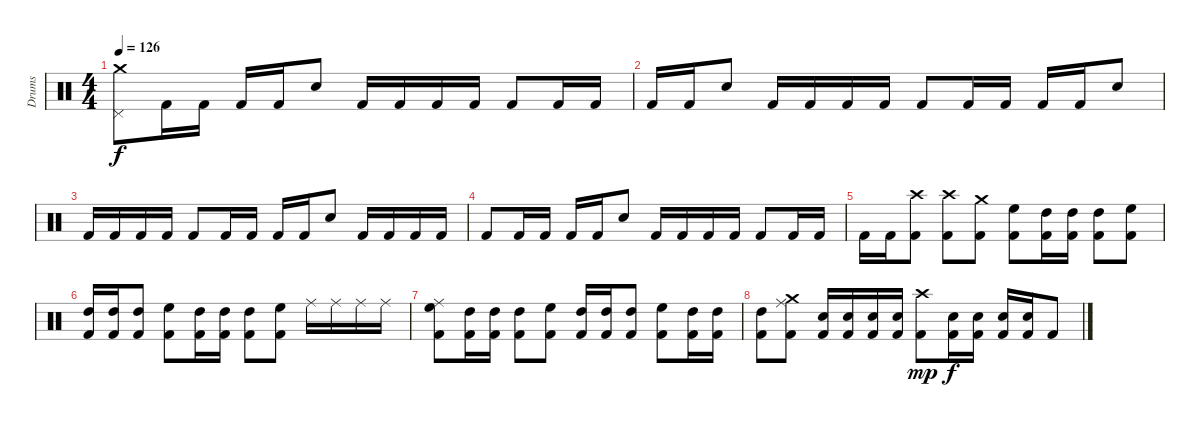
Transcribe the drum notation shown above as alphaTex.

\track ("Drums" "Drums") {instrument percussion}
\staff {score}
\articulation defaults
\ts (4 4)
\tempo 126
\clef neutral
\ks c
("Crash medium (hit)" "Pedal Hi-Hat (hit)").8{dy f} "Kick (hit) 2".16 "Kick (hit) 2".16 "Kick (hit) 2".16 "Kick (hit) 2".16 "Electric Snare (hit)".8 "Kick (hit) 2".16 "Kick (hit) 2".16 "Kick (hit) 2".16 "Kick (hit) 2".16 "Kick (hit) 2".8 "Kick (hit) 2".16 "Kick (hit) 2".16 |
"Kick (hit) 2".16 "Kick (hit) 2".16 "Electric Snare (hit)".8 "Kick (hit) 2".16 "Kick (hit) 2".16 "Kick (hit) 2".16 "Kick (hit) 2".16 "Kick (hit) 2".8 "Kick (hit) 2".16 "Kick (hit) 2".16 "Kick (hit) 2".16 "Kick (hit) 2".16 "Electric Snare (hit)".8 |
"Kick (hit) 2".16 "Kick (hit) 2".16 "Kick (hit) 2".16 "Kick (hit) 2".16 "Kick (hit) 2".8 "Kick (hit) 2".16 "Kick (hit) 2".16 "Kick (hit) 2".16 "Kick (hit) 2".16 "Electric Snare (hit)".8 "Kick (hit) 2".16 "Kick (hit) 2".16 "Kick (hit) 2".16 "Kick (hit) 2".16 |
"Kick (hit) 2".8 "Kick (hit) 2".16 "Kick (hit) 2".16 "Kick (hit) 2".16 "Kick (hit) 2".16 "Electric Snare (hit)".8 "Kick (hit) 2".16 "Kick (hit) 2".16 "Kick (hit) 2".16 "Kick (hit) 2".16 "Kick (hit) 2".8 "Kick (hit) 2".16 "Kick (hit) 2".16 |
"Kick (hit) 2".16 "Kick (hit) 2".16 ("Crash high (hit)" "Kick (hit) 2").8 ("Crash high (hit)" "Kick (hit) 2").8 ("Crash medium (hit)" "Kick (hit) 2").8 ("High Floor Tom (hit)" "Kick (hit) 2").8 ("High Tom (hit)" "Kick (hit) 2").16 ("High Tom (hit)" "Kick (hit) 2").16 ("High Tom (hit)" "Kick (hit) 2").8 ("High Floor Tom (hit)" "Kick (hit) 2").8 |
("High Tom (hit)" "Kick (hit) 2").16 ("High Tom (hit)" "Kick (hit) 2").16 ("High Tom (hit)" "Kick (hit) 2").8 ("High Floor Tom (hit)" "Kick (hit) 2").8 ("High Tom (hit)" "Kick (hit) 2").16 ("High Tom (hit)" "Kick (hit) 2").16 ("High Tom (hit)" "Kick (hit) 2").8 ("High Floor Tom (hit)" "Kick (hit) 2").8 "Ride (middle)".16 "Ride (middle)".16 "Ride (middle)".16 "Ride (middle)".16 |
("Ride (middle)" "High Floor Tom (hit)" "Kick (hit) 2").8 ("High Tom (hit)" "Kick (hit) 2").16 ("High Tom (hit)" "Kick (hit) 2").16 ("High Tom (hit)" "Kick (hit) 2").8 ("High Floor Tom (hit)" "Kick (hit) 2").8 ("High Tom (hit)" "Kick (hit) 2").16 ("High Tom (hit)" "Kick (hit) 2").16 ("High Tom (hit)" "Kick (hit) 2").8 ("High Floor Tom (hit)" "Kick (hit) 2").8 ("High Tom (hit)" "Kick (hit) 2").16 ("High Tom (hit)" "Kick (hit) 2").16 |
("High Tom (hit)" "Kick (hit) 2").8 ("Crash medium (hit)" "Ride (middle)" "Kick (hit) 2").8 ("Electric Snare (hit)" "Kick (hit) 2").16 ("Electric Snare (hit)" "Kick (hit) 2").16 ("Electric Snare (hit)" "Kick (hit) 2").16 ("Electric Snare (hit)" "Kick (hit) 2").16 ("Crash high (hit)" "Kick (hit) 2").8{dy mp} ("Electric Snare (hit)" "Kick (hit) 2").16{dy f} ("Electric Snare (hit)" "Kick (hit) 2").16 ("Electric Snare (hit)" "Kick (hit) 2").16 ("Electric Snare (hit)" "Kick (hit) 2").16 "Kick (hit) 2".8
